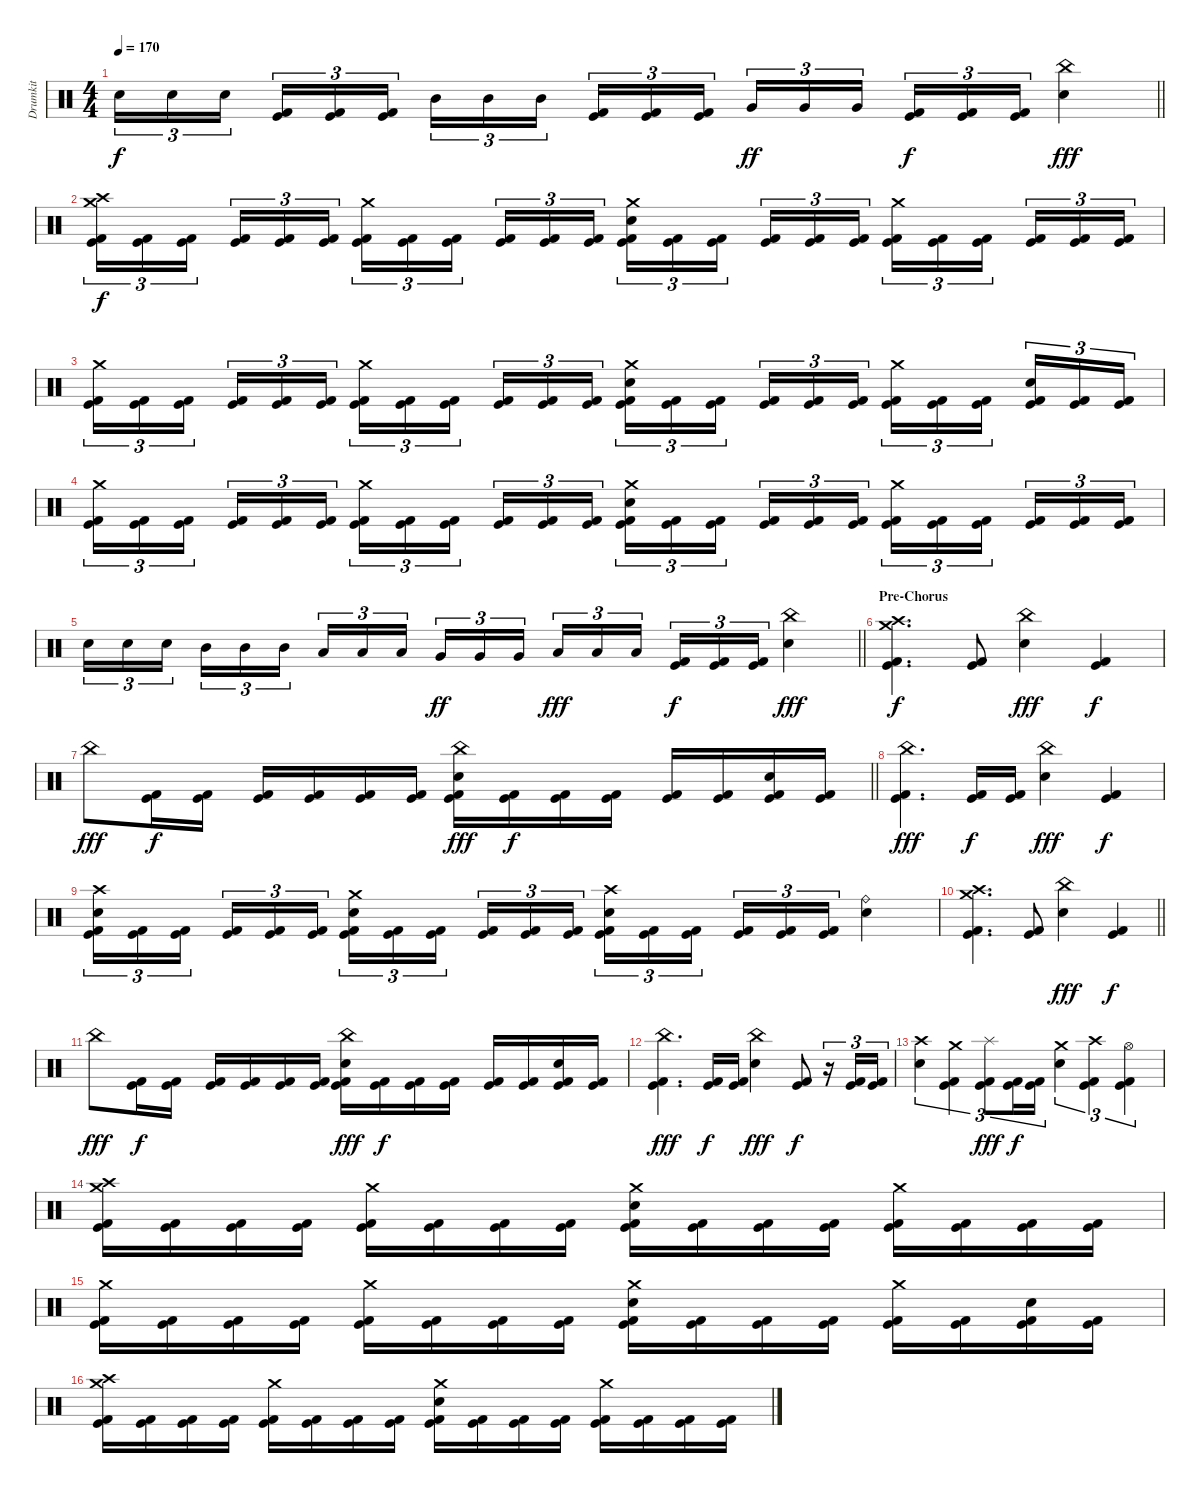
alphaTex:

\track ("Drumkit" "Drumkit") {instrument percussion}
\staff {score}
\articulation defaults
\ts (4 4)
\tempo 170
\clef neutral
\barLineRight lightlight
\ks c "Electric Snare (hit)".16{tu (3 2) dy f} "Electric Snare (hit)".16{tu (3 2)} "Electric Snare (hit)".16{tu (3 2) beam splitsecondary}
("Kick (hit)" "Kick (hit) 2").16{tu (3 2)} ("Kick (hit)" "Kick (hit) 2").16{tu (3 2)} ("Kick (hit)" "Kick (hit) 2").16{tu (3 2)} "Mid Tom (hit)".16{tu (3 2)} "Mid Tom (hit)".16{tu (3 2)} "Mid Tom (hit)".16{tu (3 2) beam splitsecondary} ("Kick (hit)" "Kick (hit) 2").16{tu (3 2)} ("Kick (hit)" "Kick (hit) 2").16{tu (3 2)} ("Kick (hit)" "Kick (hit) 2").16{tu (3 2)} "Very Low Tom (hit)".16{tu (3 2) dy ff} "Very Low Tom (hit)".16{tu (3 2)} "Very Low Tom (hit)".16{tu (3 2) beam splitsecondary} ("Kick (hit)" "Kick (hit) 2").16{tu (3 2) dy f} ("Kick (hit)" "Kick (hit) 2").16{tu (3 2)} ("Kick (hit)" "Kick (hit) 2").16{tu (3 2)} ("China (hit)" "Electric Snare (hit)").4{dy fff} |
("Crash high (hit)" "Crash medium (hit)" "Kick (hit)" "Kick (hit) 2").16{tu (3 2) dy f} ("Kick (hit)" "Kick (hit) 2").16{tu (3 2)} ("Kick (hit)" "Kick (hit) 2").16{tu (3 2) beam splitsecondary} ("Kick (hit)" "Kick (hit) 2").16{tu (3 2)} ("Kick (hit)" "Kick (hit) 2").16{tu (3 2)} ("Kick (hit)" "Kick (hit) 2").16{tu (3 2)} ("Crash medium (hit)" "Kick (hit)" "Kick (hit) 2").16{tu (3 2)} ("Kick (hit)" "Kick (hit) 2").16{tu (3 2)} ("Kick (hit)" "Kick (hit) 2").16{tu (3 2) beam splitsecondary} ("Kick (hit)" "Kick (hit) 2").16{tu (3 2)} ("Kick (hit)" "Kick (hit) 2").16{tu (3 2)} ("Kick (hit)" "Kick (hit) 2").16{tu (3 2)} ("Crash medium (hit)" "Electric Snare (hit)" "Kick (hit)" "Kick (hit) 2").16{tu (3 2)} ("Kick (hit)" "Kick (hit) 2").16{tu (3 2)} ("Kick (hit)" "Kick (hit) 2").16{tu (3 2) beam splitsecondary} ("Kick (hit)" "Kick (hit) 2").16{tu (3 2)} ("Kick (hit)" "Kick (hit) 2").16{tu (3 2)} ("Kick (hit)" "Kick (hit) 2").16{tu (3 2)} ("Crash medium (hit)" "Kick (hit)" "Kick (hit) 2").16{tu (3 2)} ("Kick (hit)" "Kick (hit) 2").16{tu (3 2)} ("Kick (hit)" "Kick (hit) 2").16{tu (3 2) beam splitsecondary} ("Kick (hit)" "Kick (hit) 2").16{tu (3 2)} ("Kick (hit)" "Kick (hit) 2").16{tu (3 2)} ("Kick (hit)" "Kick (hit) 2").16{tu (3 2)} |
("Crash medium (hit)" "Kick (hit)" "Kick (hit) 2").16{tu (3 2)} ("Kick (hit)" "Kick (hit) 2").16{tu (3 2)} ("Kick (hit)" "Kick (hit) 2").16{tu (3 2) beam splitsecondary} ("Kick (hit)" "Kick (hit) 2").16{tu (3 2)} ("Kick (hit)" "Kick (hit) 2").16{tu (3 2)} ("Kick (hit)" "Kick (hit) 2").16{tu (3 2)} ("Crash medium (hit)" "Kick (hit)" "Kick (hit) 2").16{tu (3 2)} ("Kick (hit)" "Kick (hit) 2").16{tu (3 2)} ("Kick (hit)" "Kick (hit) 2").16{tu (3 2) beam splitsecondary} ("Kick (hit)" "Kick (hit) 2").16{tu (3 2)} ("Kick (hit)" "Kick (hit) 2").16{tu (3 2)} ("Kick (hit)" "Kick (hit) 2").16{tu (3 2)} ("Crash medium (hit)" "Electric Snare (hit)" "Kick (hit)" "Kick (hit) 2").16{tu (3 2)} ("Kick (hit)" "Kick (hit) 2").16{tu (3 2)} ("Kick (hit)" "Kick (hit) 2").16{tu (3 2) beam splitsecondary} ("Kick (hit)" "Kick (hit) 2").16{tu (3 2)} ("Kick (hit)" "Kick (hit) 2").16{tu (3 2)} ("Kick (hit)" "Kick (hit) 2").16{tu (3 2)} ("Crash medium (hit)" "Kick (hit)" "Kick (hit) 2").16{tu (3 2)} ("Kick (hit)" "Kick (hit) 2").16{tu (3 2)} ("Kick (hit)" "Kick (hit) 2").16{tu (3 2) beam splitsecondary} ("Electric Snare (hit)" "Kick (hit)" "Kick (hit) 2").16{tu (3 2)} ("Kick (hit)" "Kick (hit) 2").16{tu (3 2)} ("Kick (hit)" "Kick (hit) 2").16{tu (3 2)} |
("Crash medium (hit)" "Kick (hit)" "Kick (hit) 2").16{tu (3 2)} ("Kick (hit)" "Kick (hit) 2").16{tu (3 2)} ("Kick (hit)" "Kick (hit) 2").16{tu (3 2) beam splitsecondary} ("Kick (hit)" "Kick (hit) 2").16{tu (3 2)} ("Kick (hit)" "Kick (hit) 2").16{tu (3 2)} ("Kick (hit)" "Kick (hit) 2").16{tu (3 2)} ("Crash medium (hit)" "Kick (hit)" "Kick (hit) 2").16{tu (3 2)} ("Kick (hit)" "Kick (hit) 2").16{tu (3 2)} ("Kick (hit)" "Kick (hit) 2").16{tu (3 2) beam splitsecondary} ("Kick (hit)" "Kick (hit) 2").16{tu (3 2)} ("Kick (hit)" "Kick (hit) 2").16{tu (3 2)} ("Kick (hit)" "Kick (hit) 2").16{tu (3 2)} ("Crash medium (hit)" "Electric Snare (hit)" "Kick (hit)" "Kick (hit) 2").16{tu (3 2)} ("Kick (hit)" "Kick (hit) 2").16{tu (3 2)} ("Kick (hit)" "Kick (hit) 2").16{tu (3 2) beam splitsecondary} ("Kick (hit)" "Kick (hit) 2").16{tu (3 2)} ("Kick (hit)" "Kick (hit) 2").16{tu (3 2)} ("Kick (hit)" "Kick (hit) 2").16{tu (3 2)} ("Crash medium (hit)" "Kick (hit)" "Kick (hit) 2").16{tu (3 2)} ("Kick (hit)" "Kick (hit) 2").16{tu (3 2)} ("Kick (hit)" "Kick (hit) 2").16{tu (3 2) beam splitsecondary} ("Kick (hit)" "Kick (hit) 2").16{tu (3 2)} ("Kick (hit)" "Kick (hit) 2").16{tu (3 2)} ("Kick (hit)" "Kick (hit) 2").16{tu (3 2)} |
\barLineRight lightlight "Electric Snare (hit)".16{tu (3 2)} "Electric Snare (hit)".16{tu (3 2)} "Electric Snare (hit)".16{tu (3 2) beam splitsecondary} "Mid Tom (hit)".16{tu (3 2)} "Mid Tom (hit)".16{tu (3 2)} "Mid Tom (hit)".16{tu (3 2)} "Low Tom (hit)".16{tu (3 2)} "Low Tom (hit)".16{tu (3 2)} "Low Tom (hit)".16{tu (3 2) beam splitsecondary} "Very Low Tom (hit)".16{tu (3 2) dy ff} "Very Low Tom (hit)".16{tu (3 2)} "Very Low Tom (hit)".16{tu (3 2)} "Low Floor Tom (hit)".16{tu (3 2) dy fff} "Low Floor Tom (hit)".16{tu (3 2)} "Low Floor Tom (hit)".16{tu (3 2) beam splitsecondary}
("Kick (hit)" "Kick (hit) 2").16{tu (3 2) dy f} ("Kick (hit)" "Kick (hit) 2").16{tu (3 2)} ("Kick (hit)" "Kick (hit) 2").16{tu (3 2)} ("China (hit)" "Electric Snare (hit)").4{dy fff} |
\section ("" "Pre-Chorus")
("Crash high (hit)" "Crash medium (hit)" "Kick (hit)" "Kick (hit) 2").4{d dy f} ("Kick (hit)" "Kick (hit) 2").8 ("China (hit)" "Electric Snare (hit)").4{dy fff} ("Kick (hit)" "Kick (hit) 2").4{dy f} |
\barLineRight lightlight "China (hit)".8{dy fff}
("Kick (hit)" "Kick (hit) 2").16{dy f} ("Kick (hit)" "Kick (hit) 2").16 ("Kick (hit)" "Kick (hit) 2").16 ("Kick (hit)" "Kick (hit) 2").16 ("Kick (hit)" "Kick (hit) 2").16 ("Kick (hit)" "Kick (hit) 2").16 ("China (hit)" "Electric Snare (hit)" "Kick (hit)" "Kick (hit) 2").16{dy fff} ("Kick (hit)" "Kick (hit) 2").16{dy f} ("Kick (hit)" "Kick (hit) 2").16 ("Kick (hit)" "Kick (hit) 2").16 ("Kick (hit)" "Kick (hit) 2").16 ("Kick (hit)" "Kick (hit) 2").16 ("Electric Snare (hit)" "Kick (hit)" "Kick (hit) 2").16 ("Kick (hit)" "Kick (hit) 2").16 |
("China (hit)" "Kick (hit)" "Kick (hit) 2").4{d dy fff} ("Kick (hit)" "Kick (hit) 2").16{dy f} ("Kick (hit)" "Kick (hit) 2").16 ("China (hit)" "Electric Snare (hit)").4{dy fff} ("Kick (hit)" "Kick (hit) 2").4{dy f} |
("Crash high (hit)" "Electric Snare (hit)" "Kick (hit)" "Kick (hit) 2").16{tu (3 2)} ("Kick (hit)" "Kick (hit) 2").16{tu (3 2)} ("Kick (hit)" "Kick (hit) 2").16{tu (3 2) beam splitsecondary} ("Kick (hit)" "Kick (hit) 2").16{tu (3 2)} ("Kick (hit)" "Kick (hit) 2").16{tu (3 2)} ("Kick (hit)" "Kick (hit) 2").16{tu (3 2)} ("Crash medium (hit)" "Electric Snare (hit)" "Kick (hit)" "Kick (hit) 2").16{tu (3 2)} ("Kick (hit)" "Kick (hit) 2").16{tu (3 2)} ("Kick (hit)" "Kick (hit) 2").16{tu (3 2) beam splitsecondary} ("Kick (hit)" "Kick (hit) 2").16{tu (3 2)} ("Kick (hit)" "Kick (hit) 2").16{tu (3 2)} ("Kick (hit)" "Kick (hit) 2").16{tu (3 2)} ("Crash high (hit)" "Electric Snare (hit)" "Kick (hit)" "Kick (hit) 2").16{tu (3 2)} ("Kick (hit)" "Kick (hit) 2").16{tu (3 2)} ("Kick (hit)" "Kick (hit) 2").16{tu (3 2) beam splitsecondary} ("Kick (hit)" "Kick (hit) 2").16{tu (3 2)} ("Kick (hit)" "Kick (hit) 2").16{tu (3 2)} ("Kick (hit)" "Kick (hit) 2").16{tu (3 2)} ("Ride (bell)" "Electric Snare (hit)").4 |
\barLineRight lightlight
("Crash high (hit)" "Crash medium (hit)" "Kick (hit)" "Kick (hit) 2").4{d} ("Kick (hit)" "Kick (hit) 2").8 ("China (hit)" "Electric Snare (hit)").4{dy fff} ("Kick (hit)" "Kick (hit) 2").4{dy f} |
"China (hit)".8{dy fff} ("Kick (hit)" "Kick (hit) 2").16{dy f} ("Kick (hit)" "Kick (hit) 2").16 ("Kick (hit)" "Kick (hit) 2").16 ("Kick (hit)" "Kick (hit) 2").16 ("Kick (hit)" "Kick (hit) 2").16 ("Kick (hit)" "Kick (hit) 2").16 ("China (hit)" "Electric Snare (hit)" "Kick (hit)" "Kick (hit) 2").16{dy fff} ("Kick (hit)" "Kick (hit) 2").16{dy f} ("Kick (hit)" "Kick (hit) 2").16 ("Kick (hit)" "Kick (hit) 2").16 ("Kick (hit)" "Kick (hit) 2").16 ("Kick (hit)" "Kick (hit) 2").16 ("Electric Snare (hit)" "Kick (hit)" "Kick (hit) 2").16 ("Kick (hit)" "Kick (hit) 2").16 |
("China (hit)" "Kick (hit)" "Kick (hit) 2").4{d dy fff} ("Kick (hit)" "Kick (hit) 2").16{dy f} ("Kick (hit)" "Kick (hit) 2").16 ("China (hit)" "Electric Snare (hit)").4{dy fff} ("Kick (hit)" "Kick (hit) 2").8{dy f} r.16{tu (3 2)} ("Kick (hit)" "Kick (hit) 2").16{tu (3 2)} ("Kick (hit)" "Kick (hit) 2").16{tu (3 2)} |
("Crash high (hit)" "Electric Snare (hit)").4{tu (3 2)} ("Crash medium (hit)" "Kick (hit)" "Kick (hit) 2").4{tu (3 2)} ("Splash (hit)" "Kick (hit)" "Kick (hit) 2").8{tu (3 2) dy fff} ("Kick (hit)" "Kick (hit) 2").16{tu (3 2) dy f} ("Kick (hit)" "Kick (hit) 2").16{tu (3 2)} ("Crash medium (hit)" "Electric Snare (hit)").4{tu (3 2)} ("Crash high (hit)" "Kick (hit)" "Kick (hit) 2").4{tu (3 2)} ("Hi-Hat (open)" "Kick (hit)" "Kick (hit) 2").4{tu (3 2)} |
("Crash high (hit)" "Crash medium (hit)" "Kick (hit)" "Kick (hit) 2").16 ("Kick (hit)" "Kick (hit) 2").16 ("Kick (hit)" "Kick (hit) 2").16 ("Kick (hit)" "Kick (hit) 2").16 ("Crash medium (hit)" "Kick (hit)" "Kick (hit) 2").16 ("Kick (hit)" "Kick (hit) 2").16 ("Kick (hit)" "Kick (hit) 2").16 ("Kick (hit)" "Kick (hit) 2").16 ("Crash medium (hit)" "Electric Snare (hit)" "Kick (hit)" "Kick (hit) 2").16 ("Kick (hit)" "Kick (hit) 2").16 ("Kick (hit)" "Kick (hit) 2").16 ("Kick (hit)" "Kick (hit) 2").16 ("Crash medium (hit)" "Kick (hit)" "Kick (hit) 2").16 ("Kick (hit)" "Kick (hit) 2").16 ("Kick (hit)" "Kick (hit) 2").16 ("Kick (hit)" "Kick (hit) 2").16 |
("Crash medium (hit)" "Kick (hit)" "Kick (hit) 2").16 ("Kick (hit)" "Kick (hit) 2").16 ("Kick (hit)" "Kick (hit) 2").16 ("Kick (hit)" "Kick (hit) 2").16 ("Crash medium (hit)" "Kick (hit)" "Kick (hit) 2").16 ("Kick (hit)" "Kick (hit) 2").16 ("Kick (hit)" "Kick (hit) 2").16 ("Kick (hit)" "Kick (hit) 2").16 ("Crash medium (hit)" "Electric Snare (hit)" "Kick (hit)" "Kick (hit) 2").16 ("Kick (hit)" "Kick (hit) 2").16 ("Kick (hit)" "Kick (hit) 2").16 ("Kick (hit)" "Kick (hit) 2").16 ("Crash medium (hit)" "Kick (hit)" "Kick (hit) 2").16 ("Kick (hit)" "Kick (hit) 2").16 ("Electric Snare (hit)" "Kick (hit)" "Kick (hit) 2").16 ("Kick (hit)" "Kick (hit) 2").16 |
("Crash high (hit)" "Crash medium (hit)" "Kick (hit)" "Kick (hit) 2").16 ("Kick (hit)" "Kick (hit) 2").16 ("Kick (hit)" "Kick (hit) 2").16 ("Kick (hit)" "Kick (hit) 2").16 ("Crash medium (hit)" "Kick (hit)" "Kick (hit) 2").16 ("Kick (hit)" "Kick (hit) 2").16 ("Kick (hit)" "Kick (hit) 2").16 ("Kick (hit)" "Kick (hit) 2").16 ("Crash medium (hit)" "Electric Snare (hit)" "Kick (hit)" "Kick (hit) 2").16 ("Kick (hit)" "Kick (hit) 2").16 ("Kick (hit)" "Kick (hit) 2").16 ("Kick (hit)" "Kick (hit) 2").16 ("Crash medium (hit)" "Kick (hit)" "Kick (hit) 2").16 ("Kick (hit)" "Kick (hit) 2").16 ("Kick (hit)" "Kick (hit) 2").16 ("Kick (hit)" "Kick (hit) 2").16
